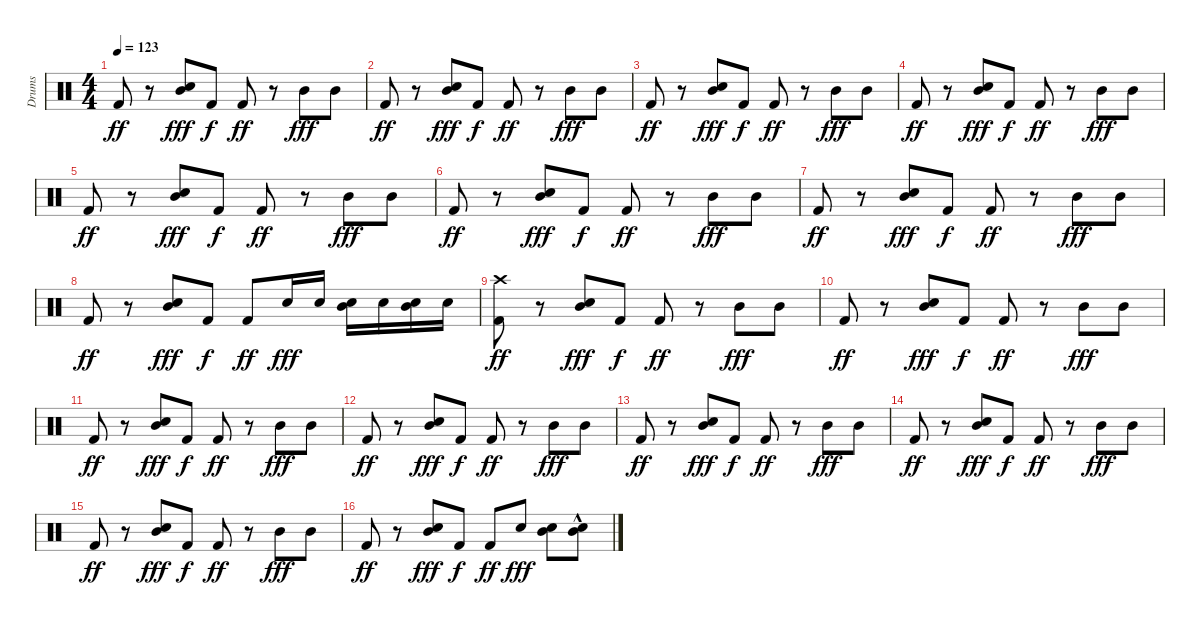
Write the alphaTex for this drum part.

\track ("Drums" "Drums") {instrument percussion}
\staff {score}
\articulation defaults
\ts (4 4)
\tempo 123
\clef neutral
\ks c "Kick (hit) 2".8{dy ff}
r.8 ("Electric Snare (hit)" "Mid Tom (hit)").8{dy fff} "Kick (hit) 2".8{dy f} "Kick (hit) 2".8{dy ff} r.8 "Mid Tom (hit)".8{dy fff} "Mid Tom (hit)".8 |
"Kick (hit) 2".8{dy ff} r.8 ("Electric Snare (hit)" "Mid Tom (hit)").8{dy fff} "Kick (hit) 2".8{dy f} "Kick (hit) 2".8{dy ff} r.8 "Mid Tom (hit)".8{dy fff} "Mid Tom (hit)".8 |
"Kick (hit) 2".8{dy ff} r.8 ("Electric Snare (hit)" "Mid Tom (hit)").8{dy fff} "Kick (hit) 2".8{dy f} "Kick (hit) 2".8{dy ff} r.8 "Mid Tom (hit)".8{dy fff} "Mid Tom (hit)".8 |
"Kick (hit) 2".8{dy ff} r.8 ("Electric Snare (hit)" "Mid Tom (hit)").8{dy fff} "Kick (hit) 2".8{dy f} "Kick (hit) 2".8{dy ff} r.8 "Mid Tom (hit)".8{dy fff} "Mid Tom (hit)".8 |
"Kick (hit) 2".8{dy ff} r.8 ("Electric Snare (hit)" "Mid Tom (hit)").8{dy fff} "Kick (hit) 2".8{dy f} "Kick (hit) 2".8{dy ff} r.8 "Mid Tom (hit)".8{dy fff} "Mid Tom (hit)".8 |
"Kick (hit) 2".8{dy ff} r.8 ("Electric Snare (hit)" "Mid Tom (hit)").8{dy fff} "Kick (hit) 2".8{dy f} "Kick (hit) 2".8{dy ff} r.8 "Mid Tom (hit)".8{dy fff} "Mid Tom (hit)".8 |
"Kick (hit) 2".8{dy ff} r.8 ("Electric Snare (hit)" "Mid Tom (hit)").8{dy fff} "Kick (hit) 2".8{dy f} "Kick (hit) 2".8{dy ff} r.8 "Mid Tom (hit)".8{dy fff} "Mid Tom (hit)".8 |
"Kick (hit) 2".8{dy ff} r.8 ("Electric Snare (hit)" "Mid Tom (hit)").8{dy fff} "Kick (hit) 2".8{dy f} "Kick (hit) 2".8{dy ff} "Electric Snare (hit)".16{dy fff} "Electric Snare (hit)".16 ("Electric Snare (hit)" "Mid Tom (hit)").16 "Electric Snare (hit)".16 ("Electric Snare (hit)" "Mid Tom (hit)").16 "Electric Snare (hit)".16 |
("Crash high (hit)" "Kick (hit) 2").8{dy ff} r.8 ("Electric Snare (hit)" "Mid Tom (hit)").8{dy fff} "Kick (hit) 2".8{dy f} "Kick (hit) 2".8{dy ff} r.8 "Mid Tom (hit)".8{dy fff} "Mid Tom (hit)".8 |
"Kick (hit) 2".8{dy ff} r.8 ("Electric Snare (hit)" "Mid Tom (hit)").8{dy fff} "Kick (hit) 2".8{dy f} "Kick (hit) 2".8{dy ff} r.8 "Mid Tom (hit)".8{dy fff} "Mid Tom (hit)".8 |
"Kick (hit) 2".8{dy ff} r.8 ("Electric Snare (hit)" "Mid Tom (hit)").8{dy fff} "Kick (hit) 2".8{dy f} "Kick (hit) 2".8{dy ff} r.8 "Mid Tom (hit)".8{dy fff} "Mid Tom (hit)".8 |
"Kick (hit) 2".8{dy ff} r.8 ("Electric Snare (hit)" "Mid Tom (hit)").8{dy fff} "Kick (hit) 2".8{dy f} "Kick (hit) 2".8{dy ff} r.8 "Mid Tom (hit)".8{dy fff} "Mid Tom (hit)".8 |
"Kick (hit) 2".8{dy ff} r.8 ("Electric Snare (hit)" "Mid Tom (hit)").8{dy fff} "Kick (hit) 2".8{dy f} "Kick (hit) 2".8{dy ff} r.8 "Mid Tom (hit)".8{dy fff} "Mid Tom (hit)".8 |
"Kick (hit) 2".8{dy ff} r.8 ("Electric Snare (hit)" "Mid Tom (hit)").8{dy fff} "Kick (hit) 2".8{dy f} "Kick (hit) 2".8{dy ff} r.8 "Mid Tom (hit)".8{dy fff} "Mid Tom (hit)".8 |
"Kick (hit) 2".8{dy ff} r.8 ("Electric Snare (hit)" "Mid Tom (hit)").8{dy fff} "Kick (hit) 2".8{dy f} "Kick (hit) 2".8{dy ff} r.8 "Mid Tom (hit)".8{dy fff} "Mid Tom (hit)".8 |
"Kick (hit) 2".8{dy ff} r.8 ("Electric Snare (hit)" "Mid Tom (hit)").8{dy fff} "Kick (hit) 2".8{dy f} "Kick (hit) 2".8{dy ff} "Electric Snare (hit)".8{dy fff} ("Electric Snare (hit)" "Mid Tom (hit)").8 ("Electric Snare (hit)"{hac} "Mid Tom (hit)").8
